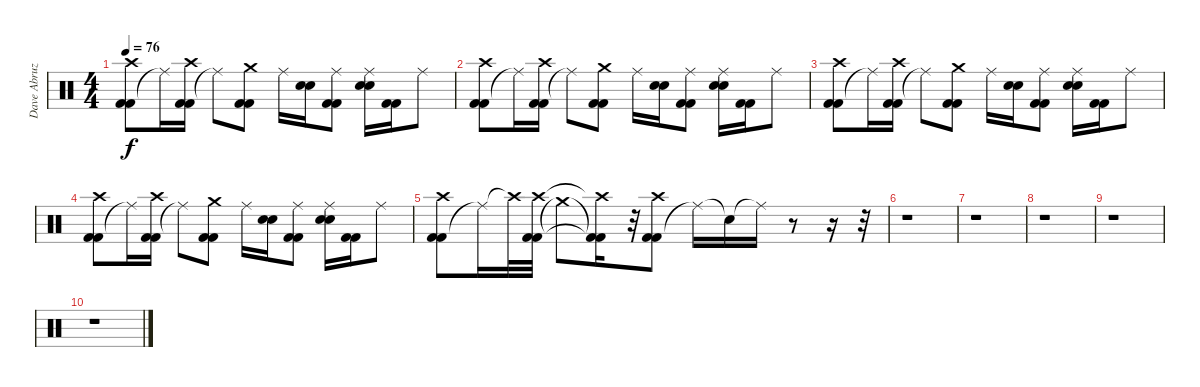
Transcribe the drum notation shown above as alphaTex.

\track ("Dave Abruzzese" "Dave Abruz") {instrument percussion}
\staff {score}
\articulation defaults
\ts (4 4)
\tempo 76
\clef neutral
\ks c
("Kick (hit) 2" "Kick (hit) 2" "Crash high (hit)").8{dy f} "Ride (middle)"{t}.16 ("Kick (hit) 2" "Kick (hit) 2" "Crash high (hit)").16 "Ride (middle)"{t}.8 ("Kick (hit) 2" "Kick (hit) 2" "Crash medium (hit)").8 "Ride (middle)".16 ("Electric Snare (hit)" "Electric Snare (hit)").16 ("Kick (hit) 2" "Kick (hit) 2" "Ride (middle)").8 ("Electric Snare (hit)" "Electric Snare (hit)" "Ride (middle)").16 ("Kick (hit) 2" "Kick (hit) 2").16 "Ride (middle)".8 |
("Kick (hit) 2" "Kick (hit) 2" "Crash high (hit)").8 "Ride (middle)"{t}.16 ("Kick (hit) 2" "Kick (hit) 2" "Crash high (hit)").16 "Ride (middle)"{t}.8 ("Kick (hit) 2" "Kick (hit) 2" "Crash medium (hit)").8 "Ride (middle)".16 ("Electric Snare (hit)" "Electric Snare (hit)").16 ("Kick (hit) 2" "Kick (hit) 2" "Ride (middle)").8 ("Electric Snare (hit)" "Electric Snare (hit)" "Ride (middle)").16 ("Kick (hit) 2" "Kick (hit) 2").16 "Ride (middle)".8 |
("Kick (hit) 2" "Kick (hit) 2" "Crash high (hit)").8 "Ride (middle)"{t}.16 ("Kick (hit) 2" "Kick (hit) 2" "Crash high (hit)").16 "Ride (middle)"{t}.8 ("Kick (hit) 2" "Kick (hit) 2" "Crash medium (hit)").8 "Ride (middle)".16 ("Electric Snare (hit)" "Electric Snare (hit)").16 ("Kick (hit) 2" "Kick (hit) 2" "Ride (middle)").8 ("Electric Snare (hit)" "Electric Snare (hit)" "Ride (middle)").16 ("Kick (hit) 2" "Kick (hit) 2").16 "Ride (middle)".8 |
("Kick (hit) 2" "Kick (hit) 2" "Crash high (hit)").8 "Ride (middle)"{t}.16 ("Kick (hit) 2" "Kick (hit) 2" "Crash high (hit)").16 "Ride (middle)"{t}.8 ("Kick (hit) 2" "Kick (hit) 2" "Crash medium (hit)").8 "Ride (middle)".16 ("Electric Snare (hit)" "Electric Snare (hit)").16 ("Kick (hit) 2" "Kick (hit) 2" "Ride (middle)").8 ("Electric Snare (hit)" "Electric Snare (hit)" "Ride (middle)").16 ("Kick (hit) 2" "Kick (hit) 2").16 "Ride (middle)".8 |
("Kick (hit) 2" "Kick (hit) 2" "Crash high (hit)").8 "Ride (middle)"{t}.16 "Crash high (hit)"{t}.32 ("Kick (hit) 2" "Kick (hit) 2" "Crash high (hit)").32 "Crash medium (hit)"{t}.8 ("Kick (hit) 2"{t} "Kick (hit) 2"{t} "Crash high (hit)"{t}).16 r.32 ("Kick (hit) 2" "Kick (hit) 2" "Crash high (hit)").8 "Ride (middle)"{t}.16 "Snare (hit)"{t}.16 "Ride (middle)"{t}.16 r.8 r.16 r.32 |
r.1 |
r.1 |
r.1 |
r.1 |
r.1
